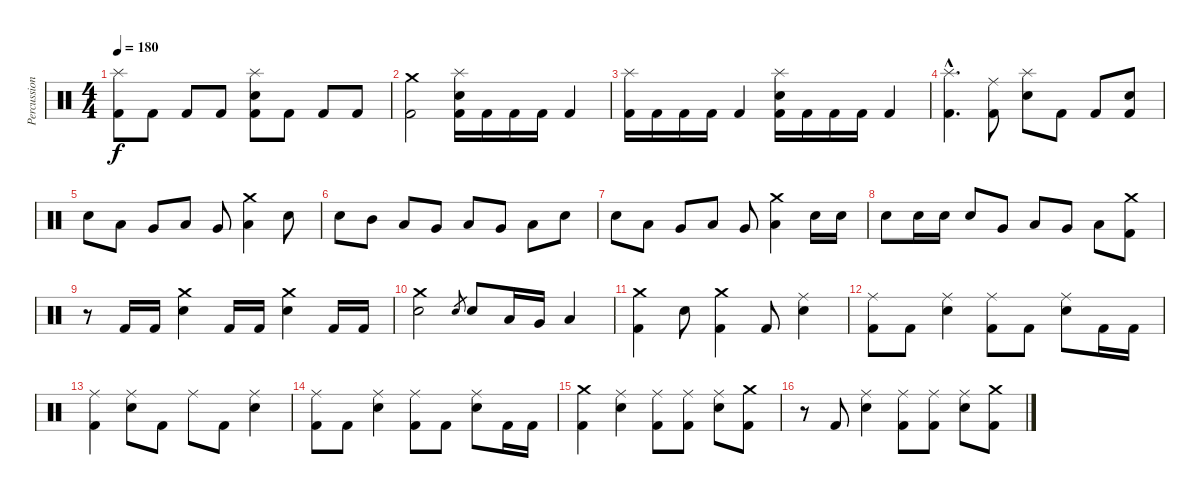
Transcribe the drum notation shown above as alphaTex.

\track ("Percussion" "Percussion") {instrument percussion}
\staff {score}
\articulation defaults
\ts (4 4)
\tempo 180
\clef neutral
\ks c
("Splash (hit)" "Kick (hit) 2").8{dy f} "Kick (hit) 2".8 "Kick (hit) 2".8 "Kick (hit) 2".8 ("Splash (hit)" "Electric Snare (hit)" "Kick (hit) 2").8 "Kick (hit) 2".8 "Kick (hit) 2".8 "Kick (hit) 2".8 |
("Crash medium (hit)" "Kick (hit) 2").2 ("Splash (hit)" "Electric Snare (hit)" "Kick (hit) 2").16 "Kick (hit) 2".16 "Kick (hit) 2".16 "Kick (hit) 2".16 "Kick (hit) 2".4 |
("Splash (hit)" "Kick (hit) 2").16 "Kick (hit) 2".16 "Kick (hit) 2".16 "Kick (hit) 2".16 "Kick (hit) 2".4 ("Splash (hit)" "Electric Snare (hit)" "Kick (hit) 2").16 "Kick (hit) 2".16 "Kick (hit) 2".16 "Kick (hit) 2".16 "Kick (hit) 2".4 |
("Splash (hit)"{hac} "Kick (hit) 2"{hac}).4{d} ("Ride (middle)" "Kick (hit) 2").8 ("Splash (hit)" "Electric Snare (hit)").8 "Kick (hit) 2".8 "Kick (hit) 2".8 ("Electric Snare (hit)" "Kick (hit) 2").8 |
"Electric Snare (hit)".8 "Low Tom (hit)".8 "Very Low Tom (hit)".8 "Low Floor Tom (hit)".8 "Very Low Tom (hit)".8 ("Crash medium (hit)" "Low Floor Tom (hit)").4 "Electric Snare (hit)".8 |
"Electric Snare (hit)".8 "Mid Tom (hit)".8 "Low Tom (hit)".8 "Very Low Tom (hit)".8 "Low Floor Tom (hit)".8 "Very Low Tom (hit)".8 "Low Tom (hit)".8 "Electric Snare (hit)".8 |
"Electric Snare (hit)".8 "Low Tom (hit)".8 "Very Low Tom (hit)".8 "Low Floor Tom (hit)".8 "Very Low Tom (hit)".8 ("Crash medium (hit)" "Low Floor Tom (hit)").4 "Electric Snare (hit)".16 "Electric Snare (hit)".16 |
"Electric Snare (hit)".8 "Electric Snare (hit)".16 "Electric Snare (hit)".16 "Electric Snare (hit)".8 "Very Low Tom (hit)".8 "Low Tom (hit)".8 "Very Low Tom (hit)".8 "Low Floor Tom (hit)".8 ("Crash medium (hit)" "Kick (hit) 2").8 |
r.8 "Kick (hit) 2".16 "Kick (hit) 2".16 ("Crash medium (hit)" "Electric Snare (hit)").4 "Kick (hit) 2".16 "Kick (hit) 2".16 ("Crash medium (hit)" "Electric Snare (hit)").4 "Kick (hit) 2".16 "Kick (hit) 2".16 |
("Crash medium (hit)" "Electric Snare (hit)").2 "Electric Snare (hit)".8{gr} "Electric Snare (hit)".8 "Low Tom (hit)".16 "Very Low Tom (hit)".16 "Low Floor Tom (hit)".4 |
("Crash medium (hit)" "Kick (hit) 2").4 "Electric Snare (hit)".8 ("Crash medium (hit)" "Kick (hit) 2").4 "Kick (hit) 2".8 ("Ride (middle)" "Electric Snare (hit)").4 |
("Ride (middle)" "Kick (hit) 2").8 "Kick (hit) 2".8 ("Ride (middle)" "Electric Snare (hit)").4 ("Ride (middle)" "Kick (hit) 2").8 "Kick (hit) 2".8 ("Ride (middle)" "Electric Snare (hit)").8 "Kick (hit) 2".16 "Kick (hit) 2".16 |
("Ride (middle)" "Kick (hit) 2").4 ("Ride (middle)" "Electric Snare (hit)").8 "Kick (hit) 2".8 "Ride (middle)".8 "Kick (hit) 2".8 ("Ride (middle)" "Electric Snare (hit)").4 |
("Ride (middle)" "Kick (hit) 2").8 "Kick (hit) 2".8 ("Ride (middle)" "Electric Snare (hit)").4 ("Ride (middle)" "Kick (hit) 2").8 "Kick (hit) 2".8 ("Ride (middle)" "Electric Snare (hit)").8 "Kick (hit) 2".16 "Kick (hit) 2".16 |
("Crash medium (hit)" "Kick (hit) 2").4 ("Ride (middle)" "Electric Snare (hit)").4 ("Ride (middle)" "Kick (hit) 2").8 ("Ride (middle)" "Kick (hit) 2").8 ("Ride (middle)" "Electric Snare (hit)").8 ("Crash medium (hit)" "Kick (hit) 2").8 |
r.8 "Kick (hit) 2".8 ("Ride (middle)" "Electric Snare (hit)").4 ("Ride (middle)" "Kick (hit) 2").8 ("Ride (middle)" "Kick (hit) 2").8 ("Ride (middle)" "Electric Snare (hit)").8 ("Crash medium (hit)" "Kick (hit) 2").8
